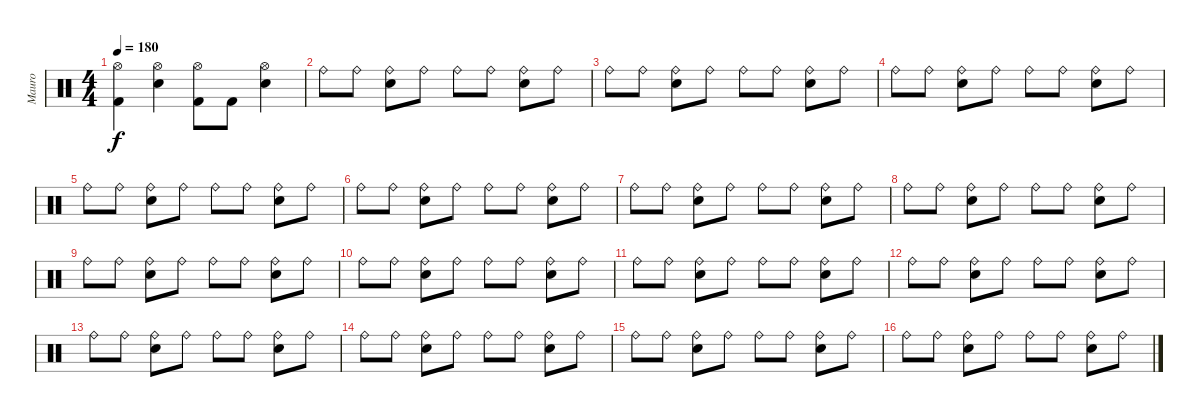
\track ("Mauro" "Mauro") {instrument percussion}
\staff {score}
\articulation defaults
\ts (4 4)
\tempo 180
\clef neutral
\ks c
("Hi-Hat (open)" "Kick (hit) 2").4{dy f} ("Hi-Hat (open)" "Snare (hit) 2").4 ("Hi-Hat (open)" "Kick (hit) 2").8 "Kick (hit) 2".8 ("Hi-Hat (open)" "Snare (hit) 2").4 |
"Ride (bell)".8 "Ride (bell)".8 ("Ride (bell)" "Snare (hit) 2").8 "Ride (bell)".8 "Ride (bell)".8 "Ride (bell)".8 ("Ride (bell)" "Snare (hit) 2").8 "Ride (bell)".8 |
"Ride (bell)".8 "Ride (bell)".8 ("Ride (bell)" "Snare (hit) 2").8 "Ride (bell)".8 "Ride (bell)".8 "Ride (bell)".8 ("Ride (bell)" "Snare (hit) 2").8 "Ride (bell)".8 |
"Ride (bell)".8 "Ride (bell)".8 ("Ride (bell)" "Snare (hit) 2").8 "Ride (bell)".8 "Ride (bell)".8 "Ride (bell)".8 ("Ride (bell)" "Snare (hit) 2").8 "Ride (bell)".8 |
"Ride (bell)".8 "Ride (bell)".8 ("Ride (bell)" "Snare (hit) 2").8 "Ride (bell)".8 "Ride (bell)".8 "Ride (bell)".8 ("Ride (bell)" "Snare (hit) 2").8 "Ride (bell)".8 |
"Ride (bell)".8 "Ride (bell)".8 ("Ride (bell)" "Snare (hit) 2").8 "Ride (bell)".8 "Ride (bell)".8 "Ride (bell)".8 ("Ride (bell)" "Snare (hit) 2").8 "Ride (bell)".8 |
"Ride (bell)".8 "Ride (bell)".8 ("Ride (bell)" "Snare (hit) 2").8 "Ride (bell)".8 "Ride (bell)".8 "Ride (bell)".8 ("Ride (bell)" "Snare (hit) 2").8 "Ride (bell)".8 |
"Ride (bell)".8 "Ride (bell)".8 ("Ride (bell)" "Snare (hit) 2").8 "Ride (bell)".8 "Ride (bell)".8 "Ride (bell)".8 ("Ride (bell)" "Snare (hit) 2").8 "Ride (bell)".8 |
"Ride (bell)".8 "Ride (bell)".8 ("Ride (bell)" "Snare (hit) 2").8 "Ride (bell)".8 "Ride (bell)".8 "Ride (bell)".8 ("Ride (bell)" "Snare (hit) 2").8 "Ride (bell)".8 |
"Ride (bell)".8 "Ride (bell)".8 ("Ride (bell)" "Snare (hit) 2").8 "Ride (bell)".8 "Ride (bell)".8 "Ride (bell)".8 ("Ride (bell)" "Snare (hit) 2").8 "Ride (bell)".8 |
"Ride (bell)".8 "Ride (bell)".8 ("Ride (bell)" "Snare (hit) 2").8 "Ride (bell)".8 "Ride (bell)".8 "Ride (bell)".8 ("Ride (bell)" "Snare (hit) 2").8 "Ride (bell)".8 |
"Ride (bell)".8 "Ride (bell)".8 ("Ride (bell)" "Snare (hit) 2").8 "Ride (bell)".8 "Ride (bell)".8 "Ride (bell)".8 ("Ride (bell)" "Snare (hit) 2").8 "Ride (bell)".8 |
"Ride (bell)".8 "Ride (bell)".8 ("Ride (bell)" "Snare (hit) 2").8 "Ride (bell)".8 "Ride (bell)".8 "Ride (bell)".8 ("Ride (bell)" "Snare (hit) 2").8 "Ride (bell)".8 |
"Ride (bell)".8 "Ride (bell)".8 ("Ride (bell)" "Snare (hit) 2").8 "Ride (bell)".8 "Ride (bell)".8 "Ride (bell)".8 ("Ride (bell)" "Snare (hit) 2").8 "Ride (bell)".8 |
"Ride (bell)".8 "Ride (bell)".8 ("Ride (bell)" "Snare (hit) 2").8 "Ride (bell)".8 "Ride (bell)".8 "Ride (bell)".8 ("Ride (bell)" "Snare (hit) 2").8 "Ride (bell)".8 |
"Ride (bell)".8 "Ride (bell)".8 ("Ride (bell)" "Snare (hit) 2").8 "Ride (bell)".8 "Ride (bell)".8 "Ride (bell)".8 ("Ride (bell)" "Snare (hit) 2").8 "Ride (bell)".8
